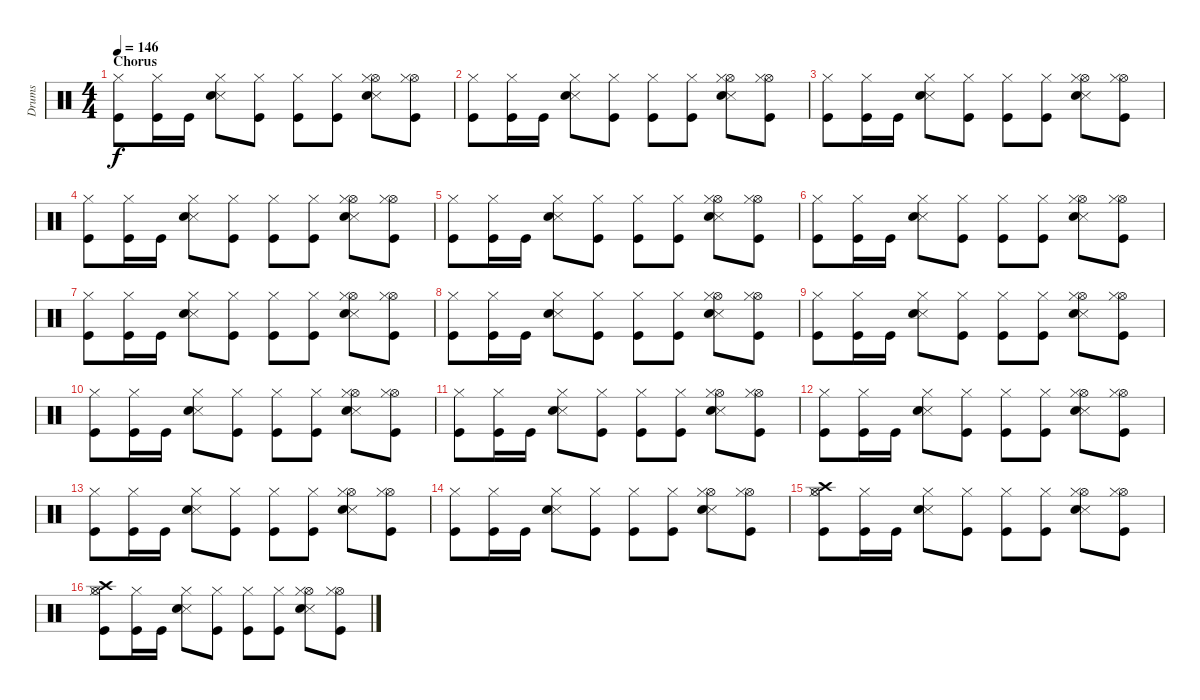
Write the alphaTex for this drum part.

\track ("Drums" "Drums") {instrument percussion}
\staff {score}
\articulation defaults
\ts (4 4)
\section ("" "Chorus")
\tempo 146
\clef neutral
\ks c
("Kick (hit)" "Hi-Hat (closed)").8{dy f} ("Kick (hit)" "Hi-Hat (closed)").16 "Kick (hit)".16 ("Snare (side stick) 3" "Electric Snare (hit)" "Hi-Hat (closed)").8 ("Kick (hit)" "Hi-Hat (closed)").8 ("Kick (hit)" "Hi-Hat (closed)").8 ("Kick (hit)" "Hi-Hat (closed)").8 ("Hi-Hat (open)" "Snare (side stick) 3" "Electric Snare (hit)" "Hi-Hat (closed)").8 ("Kick (hit)" "Hi-Hat (open)" "Hi-Hat (closed)").8 |
("Kick (hit)" "Hi-Hat (closed)").8 ("Kick (hit)" "Hi-Hat (closed)").16 "Kick (hit)".16 ("Snare (side stick) 3" "Electric Snare (hit)" "Hi-Hat (closed)").8 ("Kick (hit)" "Hi-Hat (closed)").8 ("Kick (hit)" "Hi-Hat (closed)").8 ("Kick (hit)" "Hi-Hat (closed)").8 ("Hi-Hat (open)" "Snare (side stick) 3" "Electric Snare (hit)" "Hi-Hat (closed)").8 ("Kick (hit)" "Hi-Hat (open)" "Hi-Hat (closed)").8 |
("Kick (hit)" "Hi-Hat (closed)").8 ("Kick (hit)" "Hi-Hat (closed)").16 "Kick (hit)".16 ("Snare (side stick) 3" "Electric Snare (hit)" "Hi-Hat (closed)").8 ("Kick (hit)" "Hi-Hat (closed)").8 ("Kick (hit)" "Hi-Hat (closed)").8 ("Kick (hit)" "Hi-Hat (closed)").8 ("Hi-Hat (open)" "Snare (side stick) 3" "Electric Snare (hit)" "Hi-Hat (closed)").8 ("Kick (hit)" "Hi-Hat (open)" "Hi-Hat (closed)").8 |
("Kick (hit)" "Hi-Hat (closed)").8 ("Kick (hit)" "Hi-Hat (closed)").16 "Kick (hit)".16 ("Snare (side stick) 3" "Electric Snare (hit)" "Hi-Hat (closed)").8 ("Kick (hit)" "Hi-Hat (closed)").8 ("Kick (hit)" "Hi-Hat (closed)").8 ("Kick (hit)" "Hi-Hat (closed)").8 ("Hi-Hat (open)" "Snare (side stick) 3" "Electric Snare (hit)" "Hi-Hat (closed)").8 ("Kick (hit)" "Hi-Hat (open)" "Hi-Hat (closed)").8 |
("Kick (hit)" "Hi-Hat (closed)").8 ("Kick (hit)" "Hi-Hat (closed)").16 "Kick (hit)".16 ("Snare (side stick) 3" "Electric Snare (hit)" "Hi-Hat (closed)").8 ("Kick (hit)" "Hi-Hat (closed)").8 ("Kick (hit)" "Hi-Hat (closed)").8 ("Kick (hit)" "Hi-Hat (closed)").8 ("Hi-Hat (open)" "Snare (side stick) 3" "Electric Snare (hit)" "Hi-Hat (closed)").8 ("Kick (hit)" "Hi-Hat (open)" "Hi-Hat (closed)").8 |
("Kick (hit)" "Hi-Hat (closed)").8 ("Kick (hit)" "Hi-Hat (closed)").16 "Kick (hit)".16 ("Snare (side stick) 3" "Electric Snare (hit)" "Hi-Hat (closed)").8 ("Kick (hit)" "Hi-Hat (closed)").8 ("Kick (hit)" "Hi-Hat (closed)").8 ("Kick (hit)" "Hi-Hat (closed)").8 ("Hi-Hat (open)" "Snare (side stick) 3" "Electric Snare (hit)" "Hi-Hat (closed)").8 ("Kick (hit)" "Hi-Hat (open)" "Hi-Hat (closed)").8 |
("Kick (hit)" "Hi-Hat (closed)").8 ("Kick (hit)" "Hi-Hat (closed)").16 "Kick (hit)".16 ("Snare (side stick) 3" "Electric Snare (hit)" "Hi-Hat (closed)").8 ("Kick (hit)" "Hi-Hat (closed)").8 ("Kick (hit)" "Hi-Hat (closed)").8 ("Kick (hit)" "Hi-Hat (closed)").8 ("Hi-Hat (open)" "Snare (side stick) 3" "Electric Snare (hit)" "Hi-Hat (closed)").8 ("Kick (hit)" "Hi-Hat (open)" "Hi-Hat (closed)").8 |
("Kick (hit)" "Hi-Hat (closed)").8 ("Kick (hit)" "Hi-Hat (closed)").16 "Kick (hit)".16 ("Snare (side stick) 3" "Electric Snare (hit)" "Hi-Hat (closed)").8 ("Kick (hit)" "Hi-Hat (closed)").8 ("Kick (hit)" "Hi-Hat (closed)").8 ("Kick (hit)" "Hi-Hat (closed)").8 ("Hi-Hat (open)" "Snare (side stick) 3" "Electric Snare (hit)" "Hi-Hat (closed)").8 ("Kick (hit)" "Hi-Hat (open)" "Hi-Hat (closed)").8 |
("Kick (hit)" "Hi-Hat (closed)").8 ("Kick (hit)" "Hi-Hat (closed)").16 "Kick (hit)".16 ("Snare (side stick) 3" "Electric Snare (hit)" "Hi-Hat (closed)").8 ("Kick (hit)" "Hi-Hat (closed)").8 ("Kick (hit)" "Hi-Hat (closed)").8 ("Kick (hit)" "Hi-Hat (closed)").8 ("Hi-Hat (open)" "Snare (side stick) 3" "Electric Snare (hit)" "Hi-Hat (closed)").8 ("Kick (hit)" "Hi-Hat (open)" "Hi-Hat (closed)").8 |
("Kick (hit)" "Hi-Hat (closed)").8 ("Kick (hit)" "Hi-Hat (closed)").16 "Kick (hit)".16 ("Snare (side stick) 3" "Electric Snare (hit)" "Hi-Hat (closed)").8 ("Kick (hit)" "Hi-Hat (closed)").8 ("Kick (hit)" "Hi-Hat (closed)").8 ("Kick (hit)" "Hi-Hat (closed)").8 ("Hi-Hat (open)" "Snare (side stick) 3" "Electric Snare (hit)" "Hi-Hat (closed)").8 ("Kick (hit)" "Hi-Hat (open)" "Hi-Hat (closed)").8 |
("Kick (hit)" "Hi-Hat (closed)").8 ("Kick (hit)" "Hi-Hat (closed)").16 "Kick (hit)".16 ("Snare (side stick) 3" "Electric Snare (hit)" "Hi-Hat (closed)").8 ("Kick (hit)" "Hi-Hat (closed)").8 ("Kick (hit)" "Hi-Hat (closed)").8 ("Kick (hit)" "Hi-Hat (closed)").8 ("Hi-Hat (open)" "Snare (side stick) 3" "Electric Snare (hit)" "Hi-Hat (closed)").8 ("Kick (hit)" "Hi-Hat (open)" "Hi-Hat (closed)").8 |
("Kick (hit)" "Hi-Hat (closed)").8 ("Kick (hit)" "Hi-Hat (closed)").16 "Kick (hit)".16 ("Snare (side stick) 3" "Electric Snare (hit)" "Hi-Hat (closed)").8 ("Kick (hit)" "Hi-Hat (closed)").8 ("Kick (hit)" "Hi-Hat (closed)").8 ("Kick (hit)" "Hi-Hat (closed)").8 ("Hi-Hat (open)" "Snare (side stick) 3" "Electric Snare (hit)" "Hi-Hat (closed)").8 ("Kick (hit)" "Hi-Hat (open)" "Hi-Hat (closed)").8 |
("Kick (hit)" "Hi-Hat (closed)").8 ("Kick (hit)" "Hi-Hat (closed)").16 "Kick (hit)".16 ("Snare (side stick) 3" "Electric Snare (hit)" "Hi-Hat (closed)").8 ("Kick (hit)" "Hi-Hat (closed)").8 ("Kick (hit)" "Hi-Hat (closed)").8 ("Kick (hit)" "Hi-Hat (closed)").8 ("Hi-Hat (open)" "Snare (side stick) 3" "Electric Snare (hit)" "Hi-Hat (closed)").8 ("Kick (hit)" "Hi-Hat (open)" "Hi-Hat (closed)").8 |
("Kick (hit)" "Hi-Hat (closed)").8 ("Kick (hit)" "Hi-Hat (closed)").16 "Kick (hit)".16 ("Snare (side stick) 3" "Electric Snare (hit)" "Hi-Hat (closed)").8 ("Kick (hit)" "Hi-Hat (closed)").8 ("Kick (hit)" "Hi-Hat (closed)").8 ("Kick (hit)" "Hi-Hat (closed)").8 ("Hi-Hat (open)" "Snare (side stick) 3" "Electric Snare (hit)" "Hi-Hat (closed)").8 ("Kick (hit)" "Hi-Hat (open)" "Hi-Hat (closed)").8 |
("Kick (hit)" "Hi-Hat (closed)" "Hi-Hat (open)" "Crash high (hit)").8 ("Kick (hit)" "Hi-Hat (closed)").16 "Kick (hit)".16 ("Snare (side stick) 3" "Electric Snare (hit)" "Hi-Hat (closed)").8 ("Kick (hit)" "Hi-Hat (closed)").8 ("Kick (hit)" "Hi-Hat (closed)").8 ("Kick (hit)" "Hi-Hat (closed)").8 ("Hi-Hat (open)" "Snare (side stick) 3" "Electric Snare (hit)" "Hi-Hat (closed)").8 ("Kick (hit)" "Hi-Hat (open)" "Hi-Hat (closed)").8 |
("Kick (hit)" "Hi-Hat (closed)" "Hi-Hat (open)" "Crash high (hit)").8 ("Kick (hit)" "Hi-Hat (closed)").16 "Kick (hit)".16 ("Snare (side stick) 3" "Electric Snare (hit)" "Hi-Hat (closed)").8 ("Kick (hit)" "Hi-Hat (closed)").8 ("Kick (hit)" "Hi-Hat (closed)").8 ("Kick (hit)" "Hi-Hat (closed)").8 ("Hi-Hat (open)" "Snare (side stick) 3" "Electric Snare (hit)" "Hi-Hat (closed)").8 ("Kick (hit)" "Hi-Hat (open)" "Hi-Hat (closed)").8
